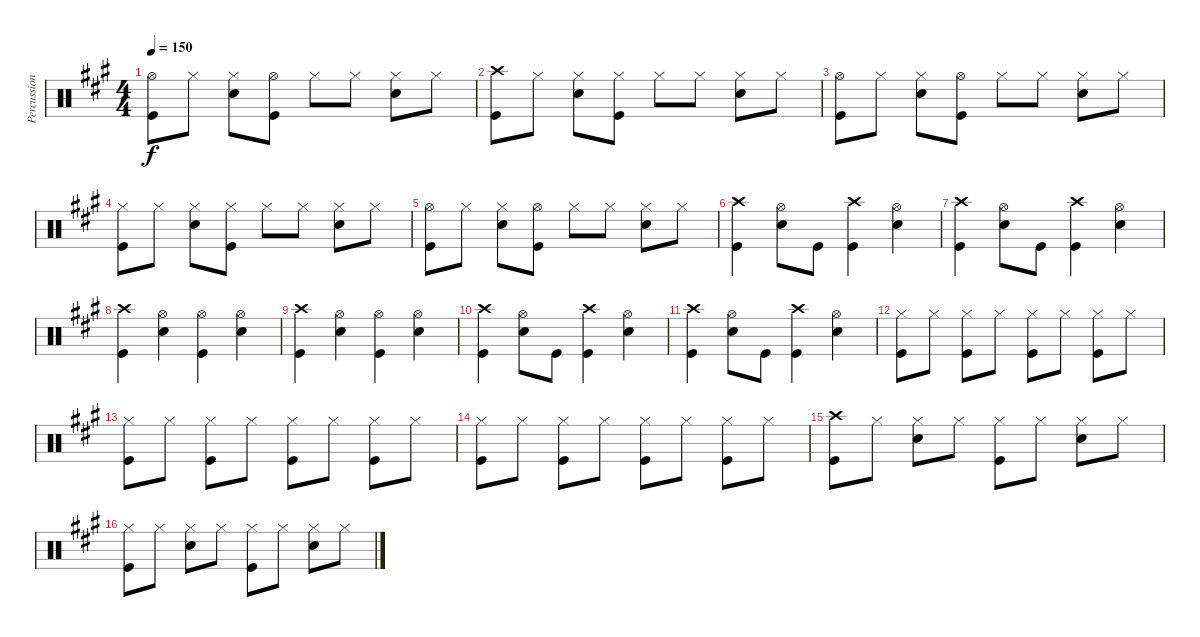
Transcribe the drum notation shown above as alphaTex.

\track ("Percussion" "Percussion") {instrument percussion}
\staff {score}
\articulation defaults
\ts (4 4)
\tempo 150
\clef neutral
\ks a
("Kick (hit)" "Hi-Hat (open)").8{dy f} "Hi-Hat (closed)".8 ("Snare (hit) 2" "Hi-Hat (closed)").8 ("Kick (hit)" "Hi-Hat (open)").8 "Hi-Hat (closed)".8 "Hi-Hat (closed)".8 ("Snare (hit) 2" "Hi-Hat (closed)").8 "Hi-Hat (closed)".8 |
("Kick (hit)" "Crash high (hit)").8 "Hi-Hat (closed)".8 ("Snare (hit) 2" "Hi-Hat (closed)").8 ("Kick (hit)" "Hi-Hat (closed)").8 "Hi-Hat (closed)".8 "Hi-Hat (closed)".8 ("Snare (hit) 2" "Hi-Hat (closed)").8 "Hi-Hat (closed)".8 |
("Kick (hit)" "Hi-Hat (open)").8 "Hi-Hat (closed)".8 ("Snare (hit) 2" "Hi-Hat (closed)").8 ("Kick (hit)" "Hi-Hat (open)").8 "Hi-Hat (closed)".8 "Hi-Hat (closed)".8 ("Snare (hit) 2" "Hi-Hat (closed)").8 "Hi-Hat (closed)".8 |
("Kick (hit)" "Hi-Hat (closed)").8 "Hi-Hat (closed)".8 ("Snare (hit) 2" "Hi-Hat (closed)").8 ("Kick (hit)" "Hi-Hat (closed)").8 "Hi-Hat (closed)".8 "Hi-Hat (closed)".8 ("Snare (hit) 2" "Hi-Hat (closed)").8 "Hi-Hat (closed)".8 |
("Kick (hit)" "Hi-Hat (open)").8 "Hi-Hat (closed)".8 ("Snare (hit) 2" "Hi-Hat (closed)").8 ("Kick (hit)" "Hi-Hat (open)").8 "Hi-Hat (closed)".8 "Hi-Hat (closed)".8 ("Snare (hit) 2" "Hi-Hat (closed)").8 "Hi-Hat (closed)".8 |
("Kick (hit)" "Crash high (hit)").4 ("Snare (hit) 2" "Hi-Hat (open)").8 "Kick (hit)".8 ("Kick (hit)" "Crash high (hit)").4 ("Hi-Hat (open)" "Snare (hit) 2").4 |
("Kick (hit)" "Crash high (hit)").4 ("Snare (hit) 2" "Hi-Hat (open)").8 "Kick (hit)".8 ("Kick (hit)" "Crash high (hit)").4 ("Hi-Hat (open)" "Snare (hit) 2").4 |
("Kick (hit)" "Crash high (hit)").4 ("Snare (hit) 2" "Hi-Hat (open)").4 ("Kick (hit)" "Hi-Hat (open)").4 ("Snare (hit) 2" "Hi-Hat (open)").4 |
("Kick (hit)" "Crash high (hit)").4 ("Snare (hit) 2" "Hi-Hat (open)").4 ("Kick (hit)" "Hi-Hat (open)").4 ("Snare (hit) 2" "Hi-Hat (open)").4 |
("Kick (hit)" "Crash high (hit)").4 ("Snare (hit) 2" "Hi-Hat (open)").8 "Kick (hit)".8 ("Kick (hit)" "Crash high (hit)").4 ("Hi-Hat (open)" "Snare (hit) 2").4 |
("Kick (hit)" "Crash high (hit)").4 ("Snare (hit) 2" "Hi-Hat (open)").8 "Kick (hit)".8 ("Kick (hit)" "Crash high (hit)").4 ("Hi-Hat (open)" "Snare (hit) 2").4 |
("Hi-Hat (closed)" "Kick (hit)").8 "Hi-Hat (closed)".8 ("Hi-Hat (closed)" "Kick (hit)").8 "Hi-Hat (closed)".8 ("Hi-Hat (closed)" "Kick (hit)").8 "Hi-Hat (closed)".8 ("Hi-Hat (closed)" "Kick (hit)").8 "Hi-Hat (closed)".8 |
("Hi-Hat (closed)" "Kick (hit)").8 "Hi-Hat (closed)".8 ("Hi-Hat (closed)" "Kick (hit)").8 "Hi-Hat (closed)".8 ("Hi-Hat (closed)" "Kick (hit)").8 "Hi-Hat (closed)".8 ("Hi-Hat (closed)" "Kick (hit)").8 "Hi-Hat (closed)".8 |
("Hi-Hat (closed)" "Kick (hit)").8 "Hi-Hat (closed)".8 ("Hi-Hat (closed)" "Kick (hit)").8 "Hi-Hat (closed)".8 ("Hi-Hat (closed)" "Kick (hit)").8 "Hi-Hat (closed)".8 ("Hi-Hat (closed)" "Kick (hit)").8 "Hi-Hat (closed)".8 |
("Crash high (hit)" "Kick (hit)").8 "Hi-Hat (closed)".8 ("Hi-Hat (closed)" "Snare (hit) 2").8 "Hi-Hat (closed)".8 ("Hi-Hat (closed)" "Kick (hit)").8 "Hi-Hat (closed)".8 ("Hi-Hat (closed)" "Snare (hit) 2").8 "Hi-Hat (closed)".8 |
("Hi-Hat (closed)" "Kick (hit)").8 "Hi-Hat (closed)".8 ("Hi-Hat (closed)" "Snare (hit) 2").8 "Hi-Hat (closed)".8 ("Hi-Hat (closed)" "Kick (hit)").8 "Hi-Hat (closed)".8 ("Hi-Hat (closed)" "Snare (hit) 2").8 "Hi-Hat (closed)".8
